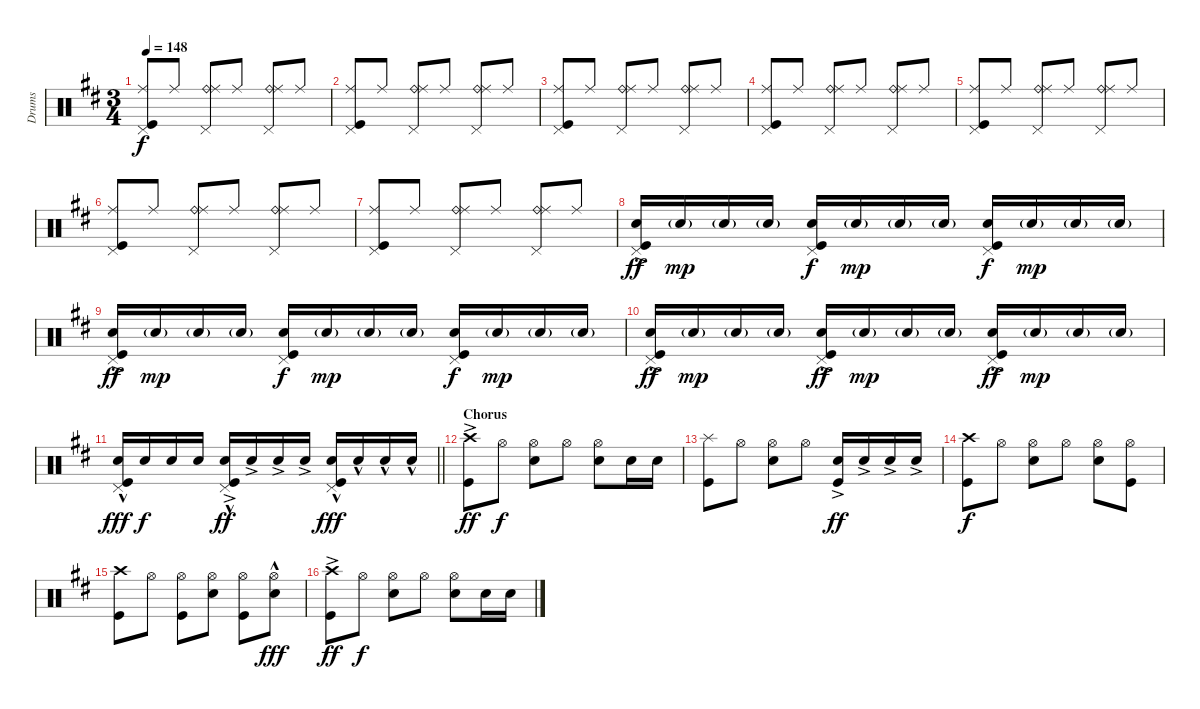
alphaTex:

\track ("Drums" "Drums") {instrument percussion}
\staff {score}
\articulation defaults
\ts (3 4)
\tempo 148
\clef neutral
\ks bminor
("Pedal Hi-Hat (hit)" "Ride (middle)" "Kick (hit)").8{dy f} "Ride (middle)".8 ("Pedal Hi-Hat (hit)" "Ride (bell)" "Ride (middle)").8 "Ride (middle)".8 ("Pedal Hi-Hat (hit)" "Ride (bell)" "Ride (middle)").8 "Ride (middle)".8 |
("Pedal Hi-Hat (hit)" "Ride (middle)" "Kick (hit)").8 "Ride (middle)".8 ("Pedal Hi-Hat (hit)" "Ride (bell)" "Ride (middle)").8 "Ride (middle)".8 ("Pedal Hi-Hat (hit)" "Ride (bell)" "Ride (middle)").8 "Ride (middle)".8 |
("Pedal Hi-Hat (hit)" "Ride (middle)" "Kick (hit)").8 "Ride (middle)".8 ("Pedal Hi-Hat (hit)" "Ride (bell)" "Ride (middle)").8 "Ride (middle)".8 ("Pedal Hi-Hat (hit)" "Ride (bell)" "Ride (middle)").8 "Ride (middle)".8 |
("Pedal Hi-Hat (hit)" "Ride (middle)" "Kick (hit)").8 "Ride (middle)".8 ("Pedal Hi-Hat (hit)" "Ride (bell)" "Ride (middle)").8 "Ride (middle)".8 ("Pedal Hi-Hat (hit)" "Ride (bell)" "Ride (middle)").8 "Ride (middle)".8 |
("Pedal Hi-Hat (hit)" "Ride (middle)" "Kick (hit)").8 "Ride (middle)".8 ("Pedal Hi-Hat (hit)" "Ride (bell)" "Ride (middle)").8 "Ride (middle)".8 ("Pedal Hi-Hat (hit)" "Ride (bell)" "Ride (middle)").8 "Ride (middle)".8 |
("Pedal Hi-Hat (hit)" "Ride (middle)" "Kick (hit)").8 "Ride (middle)".8 ("Pedal Hi-Hat (hit)" "Ride (bell)" "Ride (middle)").8 "Ride (middle)".8 ("Pedal Hi-Hat (hit)" "Ride (bell)" "Ride (middle)").8 "Ride (middle)".8 |
("Pedal Hi-Hat (hit)" "Ride (middle)" "Kick (hit)").8 "Ride (middle)".8 ("Pedal Hi-Hat (hit)" "Ride (bell)" "Ride (middle)").8 "Ride (middle)".8 ("Pedal Hi-Hat (hit)" "Ride (bell)" "Ride (middle)").8 "Ride (middle)".8 |
("Pedal Hi-Hat (hit)" "Snare (hit) 2"{ac} "Kick (hit)").16{dy ff} "Snare (hit) 2"{g}.16{dy mp} "Snare (hit) 2"{g}.16 "Snare (hit) 2"{g}.16 ("Pedal Hi-Hat (hit)" "Snare (hit) 2" "Kick (hit)").16{dy f} "Snare (hit) 2"{g}.16{dy mp} "Snare (hit) 2"{g}.16 "Snare (hit) 2"{g}.16 ("Pedal Hi-Hat (hit)" "Snare (hit) 2" "Kick (hit)").16{dy f} "Snare (hit) 2"{g}.16{dy mp} "Snare (hit) 2"{g}.16 "Snare (hit) 2"{g}.16 |
("Pedal Hi-Hat (hit)" "Snare (hit) 2"{ac} "Kick (hit)").16{dy ff} "Snare (hit) 2"{g}.16{dy mp} "Snare (hit) 2"{g}.16 "Snare (hit) 2"{g}.16 ("Pedal Hi-Hat (hit)" "Snare (hit) 2" "Kick (hit)").16{dy f} "Snare (hit) 2"{g}.16{dy mp} "Snare (hit) 2"{g}.16 "Snare (hit) 2"{g}.16 ("Pedal Hi-Hat (hit)" "Snare (hit) 2" "Kick (hit)").16{dy f} "Snare (hit) 2"{g}.16{dy mp} "Snare (hit) 2"{g}.16 "Snare (hit) 2"{g}.16 |
("Pedal Hi-Hat (hit)" "Snare (hit) 2"{ac} "Kick (hit)").16{dy ff} "Snare (hit) 2"{g}.16{dy mp} "Snare (hit) 2"{g}.16 "Snare (hit) 2"{g}.16 ("Pedal Hi-Hat (hit)" "Snare (hit) 2"{ac} "Kick (hit)").16{dy ff} "Snare (hit) 2"{g}.16{dy mp} "Snare (hit) 2"{g}.16 "Snare (hit) 2"{g}.16 ("Pedal Hi-Hat (hit)" "Snare (hit) 2"{ac} "Kick (hit)").16{dy ff} "Snare (hit) 2"{g}.16{dy mp} "Snare (hit) 2"{g}.16 "Snare (hit) 2"{g}.16 |
\barLineRight lightlight
("Pedal Hi-Hat (hit)" "Snare (hit) 2"{hac} "Kick (hit)").16{dy fff} "Snare (hit) 2".16{dy f} "Snare (hit) 2".16 "Snare (hit) 2".16 ("Pedal Hi-Hat (hit)"{ac} "Snare (hit) 2"{hac} "Kick (hit)"{ac}).16{dy ff} "Snare (hit) 2"{ac}.16 "Snare (hit) 2"{ac}.16 "Snare (hit) 2"{ac}.16 ("Pedal Hi-Hat (hit)"{hac} "Snare (hit) 2"{hac} "Kick (hit)"{hac}).16{dy fff} "Snare (hit) 2"{hac}.16 "Snare (hit) 2"{hac}.16 "Snare (hit) 2"{hac}.16 |
\section ("" "Chorus")
("Crash high (hit)"{ac} "Kick (hit)").8{dy ff} "Hi-Hat (open)".8{dy f} ("Hi-Hat (open)" "Snare (hit) 2").8 "Hi-Hat (open)".8 ("Hi-Hat (open)" "Snare (hit) 2").8 "Snare (hit) 2".16 "Snare (hit) 2".16 |
("Splash (hit)" "Kick (hit)").8 "Hi-Hat (open)".8 ("Hi-Hat (open)" "Snare (hit) 2").8 "Hi-Hat (open)".8 ("Snare (hit) 2"{ac} "Kick (hit)").16{dy ff} "Snare (hit) 2"{ac}.16 "Snare (hit) 2"{ac}.16 "Snare (hit) 2"{ac}.16 |
("Crash high (hit)" "Kick (hit)").8{dy f} "Hi-Hat (open)".8 ("Hi-Hat (open)" "Snare (hit) 2").8 "Hi-Hat (open)".8 ("Hi-Hat (open)" "Snare (hit) 2").8 ("Hi-Hat (open)" "Kick (hit)").8 |
("Crash high (hit)" "Kick (hit)").8 "Hi-Hat (open)".8 ("Hi-Hat (open)" "Kick (hit)").8 ("Hi-Hat (open)" "Snare (hit) 2").8 ("Hi-Hat (open)" "Kick (hit)").8 ("Hi-Hat (open)"{hac} "Snare (hit) 2").8{dy fff} |
("Crash high (hit)"{ac} "Kick (hit)").8{dy ff} "Hi-Hat (open)".8{dy f} ("Hi-Hat (open)" "Snare (hit) 2").8 "Hi-Hat (open)".8 ("Hi-Hat (open)" "Snare (hit) 2").8 "Snare (hit) 2".16 "Snare (hit) 2".16
